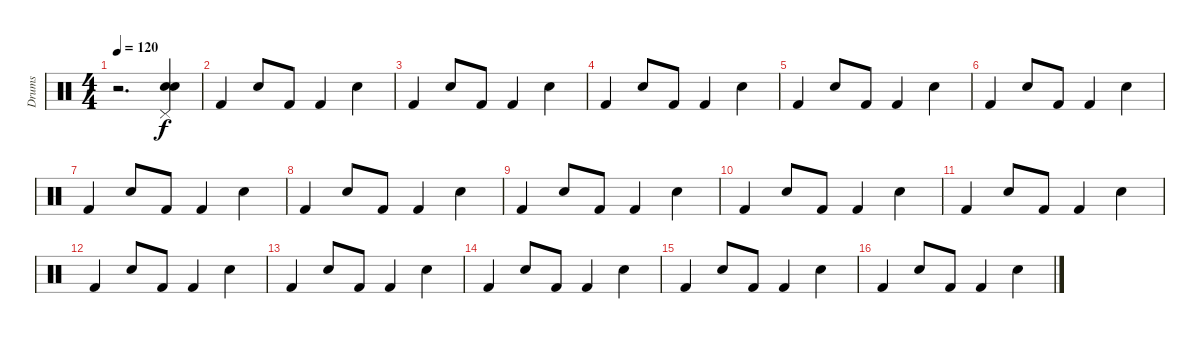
\track ("Drums" "Drums") {instrument percussion}
\staff {score}
\articulation defaults
\ts (4 4)
\tempo 120
\clef neutral
\ks c
r.2{d dy f} ("Pedal Hi-Hat (hit)" "Snare (hit) 2" "Snare (hit) 2").4 |
"Kick (hit) 2".4 "Snare (hit) 2".8 "Kick (hit) 2".8 "Kick (hit) 2".4 "Snare (hit) 2".4 |
"Kick (hit) 2".4 "Snare (hit) 2".8 "Kick (hit) 2".8 "Kick (hit) 2".4 "Snare (hit) 2".4 |
"Kick (hit) 2".4 "Snare (hit) 2".8 "Kick (hit) 2".8 "Kick (hit) 2".4 "Snare (hit) 2".4 |
"Kick (hit) 2".4 "Snare (hit) 2".8 "Kick (hit) 2".8 "Kick (hit) 2".4 "Snare (hit) 2".4 |
"Kick (hit) 2".4 "Snare (hit) 2".8 "Kick (hit) 2".8 "Kick (hit) 2".4 "Snare (hit) 2".4 |
"Kick (hit) 2".4 "Snare (hit) 2".8 "Kick (hit) 2".8 "Kick (hit) 2".4 "Snare (hit) 2".4 |
"Kick (hit) 2".4 "Snare (hit) 2".8 "Kick (hit) 2".8 "Kick (hit) 2".4 "Snare (hit) 2".4 |
"Kick (hit) 2".4 "Snare (hit) 2".8 "Kick (hit) 2".8 "Kick (hit) 2".4 "Snare (hit) 2".4 |
"Kick (hit) 2".4 "Snare (hit) 2".8 "Kick (hit) 2".8 "Kick (hit) 2".4 "Snare (hit) 2".4 |
"Kick (hit) 2".4 "Snare (hit) 2".8 "Kick (hit) 2".8 "Kick (hit) 2".4 "Snare (hit) 2".4 |
"Kick (hit) 2".4 "Snare (hit) 2".8 "Kick (hit) 2".8 "Kick (hit) 2".4 "Snare (hit) 2".4 |
"Kick (hit) 2".4 "Snare (hit) 2".8 "Kick (hit) 2".8 "Kick (hit) 2".4 "Snare (hit) 2".4 |
"Kick (hit) 2".4 "Snare (hit) 2".8 "Kick (hit) 2".8 "Kick (hit) 2".4 "Snare (hit) 2".4 |
"Kick (hit) 2".4 "Snare (hit) 2".8 "Kick (hit) 2".8 "Kick (hit) 2".4 "Snare (hit) 2".4 |
"Kick (hit) 2".4 "Snare (hit) 2".8 "Kick (hit) 2".8 "Kick (hit) 2".4 "Snare (hit) 2".4
